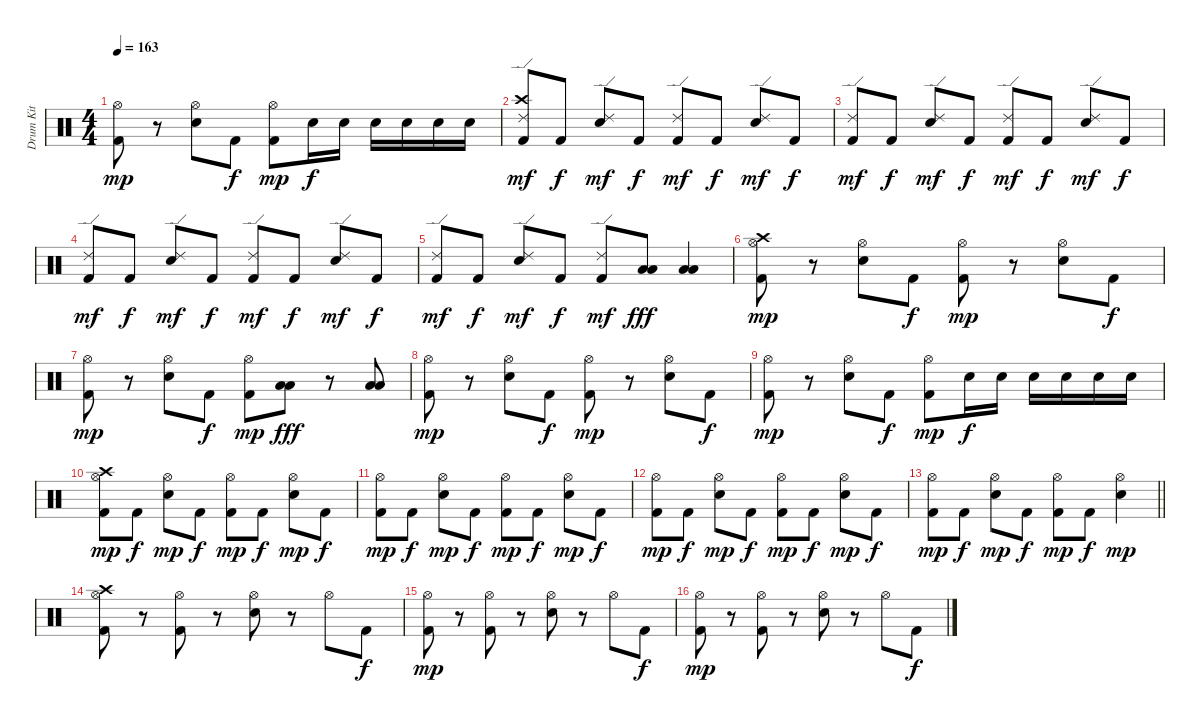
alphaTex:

\track ("Drum Kit" "Drum Kit") {instrument percussion}
\staff {score}
\articulation defaults
\ts (4 4)
\tempo 163
\clef neutral
\ks c
("Hi-Hat (open)" "Kick (hit) 2").8{dy mp} r.8 ("Hi-Hat (open)" "Electric Snare (hit)").8 "Kick (hit) 2".8{dy f} ("Hi-Hat (open)" "Kick (hit) 2").8{dy mp} "Electric Snare (hit)".16{dy f} "Electric Snare (hit)".16 "Electric Snare (hit)".16 "Electric Snare (hit)".16 "Electric Snare (hit)".16 "Electric Snare (hit)".16 |
("Crash high (hit)" "Ride (edge) 2" "Kick (hit) 2").8{dy mf} "Kick (hit) 2".8{dy f} ("Ride (edge) 2" "Electric Snare (hit)").8{dy mf} "Kick (hit) 2".8{dy f} ("Ride (edge) 2" "Kick (hit) 2").8{dy mf} "Kick (hit) 2".8{dy f} ("Ride (edge) 2" "Electric Snare (hit)").8{dy mf} "Kick (hit) 2".8{dy f} |
("Ride (edge) 2" "Kick (hit) 2").8{dy mf} "Kick (hit) 2".8{dy f} ("Ride (edge) 2" "Electric Snare (hit)").8{dy mf} "Kick (hit) 2".8{dy f} ("Ride (edge) 2" "Kick (hit) 2").8{dy mf} "Kick (hit) 2".8{dy f} ("Ride (edge) 2" "Electric Snare (hit)").8{dy mf} "Kick (hit) 2".8{dy f} |
("Ride (edge) 2" "Kick (hit) 2").8{dy mf} "Kick (hit) 2".8{dy f} ("Ride (edge) 2" "Electric Snare (hit)").8{dy mf} "Kick (hit) 2".8{dy f} ("Ride (edge) 2" "Kick (hit) 2").8{dy mf} "Kick (hit) 2".8{dy f} ("Ride (edge) 2" "Electric Snare (hit)").8{dy mf} "Kick (hit) 2".8{dy f} |
("Ride (edge) 2" "Kick (hit) 2").8{dy mf} "Kick (hit) 2".8{dy f} ("Ride (edge) 2" "Electric Snare (hit)").8{dy mf} "Kick (hit) 2".8{dy f} ("Ride (edge) 2" "Kick (hit) 2").8{dy mf} ("Low Floor Tom (hit)" "Low Floor Tom (hit)").8{dy fff} ("Low Floor Tom (hit)" "Low Floor Tom (hit)").4 |
("Crash high (hit)" "Hi-Hat (open)" "Kick (hit) 2").8{dy mp} r.8 ("Hi-Hat (open)" "Electric Snare (hit)").8 "Kick (hit) 2".8{dy f} ("Hi-Hat (open)" "Kick (hit) 2").8{dy mp} r.8 ("Hi-Hat (open)" "Electric Snare (hit)").8 "Kick (hit) 2".8{dy f} |
("Hi-Hat (open)" "Kick (hit) 2").8{dy mp} r.8 ("Hi-Hat (open)" "Electric Snare (hit)").8 "Kick (hit) 2".8{dy f} ("Hi-Hat (open)" "Kick (hit) 2").8{dy mp} ("Low Floor Tom (hit)" "Low Floor Tom (hit)").8{dy fff} r.8 ("Low Floor Tom (hit)" "Low Floor Tom (hit)").8 |
("Hi-Hat (open)" "Kick (hit) 2").8{dy mp} r.8 ("Hi-Hat (open)" "Electric Snare (hit)").8 "Kick (hit) 2".8{dy f} ("Hi-Hat (open)" "Kick (hit) 2").8{dy mp} r.8 ("Hi-Hat (open)" "Electric Snare (hit)").8 "Kick (hit) 2".8{dy f} |
("Hi-Hat (open)" "Kick (hit) 2").8{dy mp} r.8 ("Hi-Hat (open)" "Electric Snare (hit)").8 "Kick (hit) 2".8{dy f} ("Hi-Hat (open)" "Kick (hit) 2").8{dy mp} "Electric Snare (hit)".16{dy f} "Electric Snare (hit)".16 "Electric Snare (hit)".16 "Electric Snare (hit)".16 "Electric Snare (hit)".16 "Electric Snare (hit)".16 |
("Crash high (hit)" "Hi-Hat (open)" "Kick (hit) 2").8{dy mp} "Kick (hit) 2".8{dy f} ("Hi-Hat (open)" "Electric Snare (hit)").8{dy mp} "Kick (hit) 2".8{dy f} ("Hi-Hat (open)" "Kick (hit) 2").8{dy mp} "Kick (hit) 2".8{dy f} ("Hi-Hat (open)" "Electric Snare (hit)").8{dy mp} "Kick (hit) 2".8{dy f} |
("Hi-Hat (open)" "Kick (hit) 2").8{dy mp} "Kick (hit) 2".8{dy f} ("Hi-Hat (open)" "Electric Snare (hit)").8{dy mp} "Kick (hit) 2".8{dy f} ("Hi-Hat (open)" "Kick (hit) 2").8{dy mp} "Kick (hit) 2".8{dy f} ("Hi-Hat (open)" "Electric Snare (hit)").8{dy mp} "Kick (hit) 2".8{dy f} |
("Hi-Hat (open)" "Kick (hit) 2").8{dy mp} "Kick (hit) 2".8{dy f} ("Hi-Hat (open)" "Electric Snare (hit)").8{dy mp} "Kick (hit) 2".8{dy f} ("Hi-Hat (open)" "Kick (hit) 2").8{dy mp} "Kick (hit) 2".8{dy f} ("Hi-Hat (open)" "Electric Snare (hit)").8{dy mp} "Kick (hit) 2".8{dy f} |
\barLineRight lightlight
("Hi-Hat (open)" "Kick (hit) 2").8{dy mp} "Kick (hit) 2".8{dy f} ("Hi-Hat (open)" "Electric Snare (hit)").8{dy mp} "Kick (hit) 2".8{dy f} ("Hi-Hat (open)" "Kick (hit) 2").8{dy mp} "Kick (hit) 2".8{dy f} ("Hi-Hat (open)" "Electric Snare (hit)").4{dy mp} |
("Crash high (hit)" "Hi-Hat (open)" "Kick (hit) 2").8 r.8 ("Hi-Hat (open)" "Kick (hit) 2").8 r.8 ("Hi-Hat (open)" "Electric Snare (hit)").8 r.8 "Hi-Hat (open)".8 "Kick (hit) 2".8{dy f} |
("Hi-Hat (open)" "Kick (hit) 2").8{dy mp} r.8 ("Hi-Hat (open)" "Kick (hit) 2").8 r.8 ("Hi-Hat (open)" "Electric Snare (hit)").8 r.8 "Hi-Hat (open)".8 "Kick (hit) 2".8{dy f} |
("Hi-Hat (open)" "Kick (hit) 2").8{dy mp} r.8 ("Hi-Hat (open)" "Kick (hit) 2").8 r.8 ("Hi-Hat (open)" "Electric Snare (hit)").8 r.8 "Hi-Hat (open)".8 "Kick (hit) 2".8{dy f}
